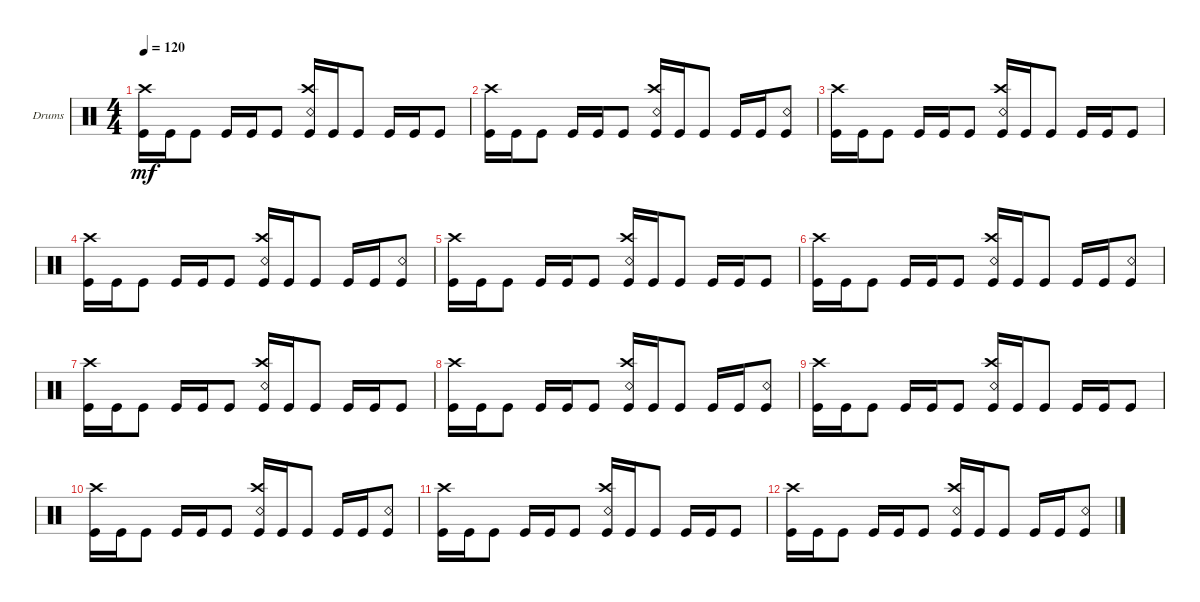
\bracketExtendMode groupsimilarinstruments
\firstSystemTrackNameOrientation horizontal
\otherSystemsTrackNameOrientation horizontal
\track ("Kaleb - Drums" "Drums") {instrument percussion}
\staff {score}
\articulation defaults
\ts (4 4)
\tempo 120
\clef neutral
\ks c
("Kick (hit)" "Crash high (hit)").16{dy mf} "Kick (hit)".16 "Kick (hit)".8 "Kick (hit)".16 "Kick (hit)".16 "Kick (hit)".8 ("Kick (hit)" "Crash high (hit)" "Snare (rim shot)").16 "Kick (hit)".16 "Kick (hit)".8 "Kick (hit)".16 "Kick (hit)".16 "Kick (hit)".8 |
("Kick (hit)" "Crash high (hit)").16 "Kick (hit)".16 "Kick (hit)".8 "Kick (hit)".16 "Kick (hit)".16 "Kick (hit)".8 ("Kick (hit)" "Crash high (hit)" "Snare (rim shot)").16 "Kick (hit)".16 "Kick (hit)".8 "Kick (hit)".16 "Kick (hit)".16 ("Kick (hit)" "Snare (rim shot)").8 |
("Kick (hit)" "Crash high (hit)").16 "Kick (hit)".16 "Kick (hit)".8 "Kick (hit)".16 "Kick (hit)".16 "Kick (hit)".8 ("Kick (hit)" "Crash high (hit)" "Snare (rim shot)").16 "Kick (hit)".16 "Kick (hit)".8 "Kick (hit)".16 "Kick (hit)".16 "Kick (hit)".8 |
("Kick (hit)" "Crash high (hit)").16 "Kick (hit)".16 "Kick (hit)".8 "Kick (hit)".16 "Kick (hit)".16 "Kick (hit)".8 ("Kick (hit)" "Crash high (hit)" "Snare (rim shot)").16 "Kick (hit)".16 "Kick (hit)".8 "Kick (hit)".16 "Kick (hit)".16 ("Kick (hit)" "Snare (rim shot)").8 |
("Kick (hit)" "Crash high (hit)").16 "Kick (hit)".16 "Kick (hit)".8 "Kick (hit)".16 "Kick (hit)".16 "Kick (hit)".8 ("Kick (hit)" "Crash high (hit)" "Snare (rim shot)").16 "Kick (hit)".16 "Kick (hit)".8 "Kick (hit)".16 "Kick (hit)".16 "Kick (hit)".8 |
("Kick (hit)" "Crash high (hit)").16 "Kick (hit)".16 "Kick (hit)".8 "Kick (hit)".16 "Kick (hit)".16 "Kick (hit)".8 ("Kick (hit)" "Crash high (hit)" "Snare (rim shot)").16 "Kick (hit)".16 "Kick (hit)".8 "Kick (hit)".16 "Kick (hit)".16 ("Kick (hit)" "Snare (rim shot)").8 |
("Kick (hit)" "Crash high (hit)").16 "Kick (hit)".16 "Kick (hit)".8 "Kick (hit)".16 "Kick (hit)".16 "Kick (hit)".8 ("Kick (hit)" "Crash high (hit)" "Snare (rim shot)").16 "Kick (hit)".16 "Kick (hit)".8 "Kick (hit)".16 "Kick (hit)".16 "Kick (hit)".8 |
("Kick (hit)" "Crash high (hit)").16 "Kick (hit)".16 "Kick (hit)".8 "Kick (hit)".16 "Kick (hit)".16 "Kick (hit)".8 ("Kick (hit)" "Crash high (hit)" "Snare (rim shot)").16 "Kick (hit)".16 "Kick (hit)".8 "Kick (hit)".16 "Kick (hit)".16 ("Kick (hit)" "Snare (rim shot)").8 |
("Kick (hit)" "Crash high (hit)").16 "Kick (hit)".16 "Kick (hit)".8 "Kick (hit)".16 "Kick (hit)".16 "Kick (hit)".8 ("Kick (hit)" "Crash high (hit)" "Snare (rim shot)").16 "Kick (hit)".16 "Kick (hit)".8 "Kick (hit)".16 "Kick (hit)".16 "Kick (hit)".8 |
("Kick (hit)" "Crash high (hit)").16 "Kick (hit)".16 "Kick (hit)".8 "Kick (hit)".16 "Kick (hit)".16 "Kick (hit)".8 ("Kick (hit)" "Crash high (hit)" "Snare (rim shot)").16 "Kick (hit)".16 "Kick (hit)".8 "Kick (hit)".16 "Kick (hit)".16 ("Kick (hit)" "Snare (rim shot)").8 |
("Kick (hit)" "Crash high (hit)").16 "Kick (hit)".16 "Kick (hit)".8 "Kick (hit)".16 "Kick (hit)".16 "Kick (hit)".8 ("Kick (hit)" "Crash high (hit)" "Snare (rim shot)").16 "Kick (hit)".16 "Kick (hit)".8 "Kick (hit)".16 "Kick (hit)".16 "Kick (hit)".8 |
("Kick (hit)" "Crash high (hit)").16 "Kick (hit)".16 "Kick (hit)".8 "Kick (hit)".16 "Kick (hit)".16 "Kick (hit)".8 ("Kick (hit)" "Crash high (hit)" "Snare (rim shot)").16 "Kick (hit)".16 "Kick (hit)".8 "Kick (hit)".16 "Kick (hit)".16 ("Kick (hit)" "Snare (rim shot)").8
